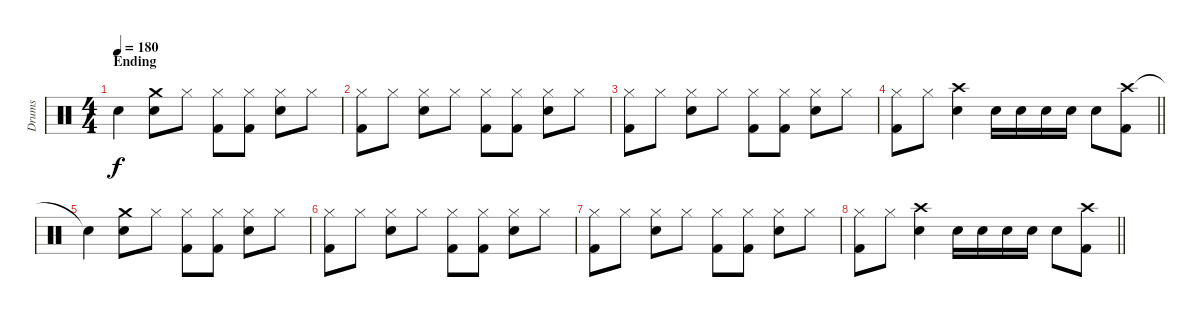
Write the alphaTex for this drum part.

\track ("Drums" "Drums") {instrument percussion}
\staff {score}
\articulation defaults
\ts (4 4)
\section ("" "Ending")
\tempo 180
\clef neutral
\ks c "Snare (hit)"{t}.4{dy f}
("Crash medium (hit)" "Snare (hit) 2").8 "Hi-Hat (closed)".8 ("Hi-Hat (closed)" "Kick (hit) 2").8 ("Hi-Hat (closed)" "Kick (hit) 2").8 ("Hi-Hat (closed)" "Snare (hit) 2").8 "Hi-Hat (closed)".8 |
("Hi-Hat (closed)" "Kick (hit) 2").8 "Hi-Hat (closed)".8 ("Hi-Hat (closed)" "Snare (hit) 2").8 "Hi-Hat (closed)".8 ("Hi-Hat (closed)" "Kick (hit) 2").8 ("Hi-Hat (closed)" "Kick (hit) 2").8 ("Hi-Hat (closed)" "Snare (hit) 2").8 "Hi-Hat (closed)".8 |
("Hi-Hat (closed)" "Kick (hit) 2").8 "Hi-Hat (closed)".8 ("Hi-Hat (closed)" "Snare (hit) 2").8 "Hi-Hat (closed)".8 ("Hi-Hat (closed)" "Kick (hit) 2").8 ("Hi-Hat (closed)" "Kick (hit) 2").8 ("Hi-Hat (closed)" "Snare (hit) 2").8 "Hi-Hat (closed)".8 |
\barLineRight lightlight
("Hi-Hat (closed)" "Kick (hit) 2").8 "Hi-Hat (closed)".8 ("Crash high (hit)" "Snare (hit) 2").4 "Snare (hit) 2".16 "Snare (hit) 2".16 "Snare (hit) 2".16 "Snare (hit) 2".16 "Snare (hit) 2".8 ("Crash high (hit)" "Kick (hit) 2").8 |
"Snare (hit)"{t}.4 ("Crash medium (hit)" "Snare (hit) 2").8 "Hi-Hat (closed)".8 ("Hi-Hat (closed)" "Kick (hit) 2").8 ("Hi-Hat (closed)" "Kick (hit) 2").8 ("Hi-Hat (closed)" "Snare (hit) 2").8 "Hi-Hat (closed)".8 |
("Hi-Hat (closed)" "Kick (hit) 2").8 "Hi-Hat (closed)".8 ("Hi-Hat (closed)" "Snare (hit) 2").8 "Hi-Hat (closed)".8 ("Hi-Hat (closed)" "Kick (hit) 2").8 ("Hi-Hat (closed)" "Kick (hit) 2").8 ("Hi-Hat (closed)" "Snare (hit) 2").8 "Hi-Hat (closed)".8 |
("Hi-Hat (closed)" "Kick (hit) 2").8 "Hi-Hat (closed)".8 ("Hi-Hat (closed)" "Snare (hit) 2").8 "Hi-Hat (closed)".8 ("Hi-Hat (closed)" "Kick (hit) 2").8 ("Hi-Hat (closed)" "Kick (hit) 2").8 ("Hi-Hat (closed)" "Snare (hit) 2").8 "Hi-Hat (closed)".8 |
\barLineRight lightlight
("Hi-Hat (closed)" "Kick (hit) 2").8 "Hi-Hat (closed)".8 ("Crash high (hit)" "Snare (hit) 2").4 "Snare (hit) 2".16 "Snare (hit) 2".16 "Snare (hit) 2".16 "Snare (hit) 2".16 "Snare (hit) 2".8 ("Crash high (hit)" "Kick (hit) 2").8
